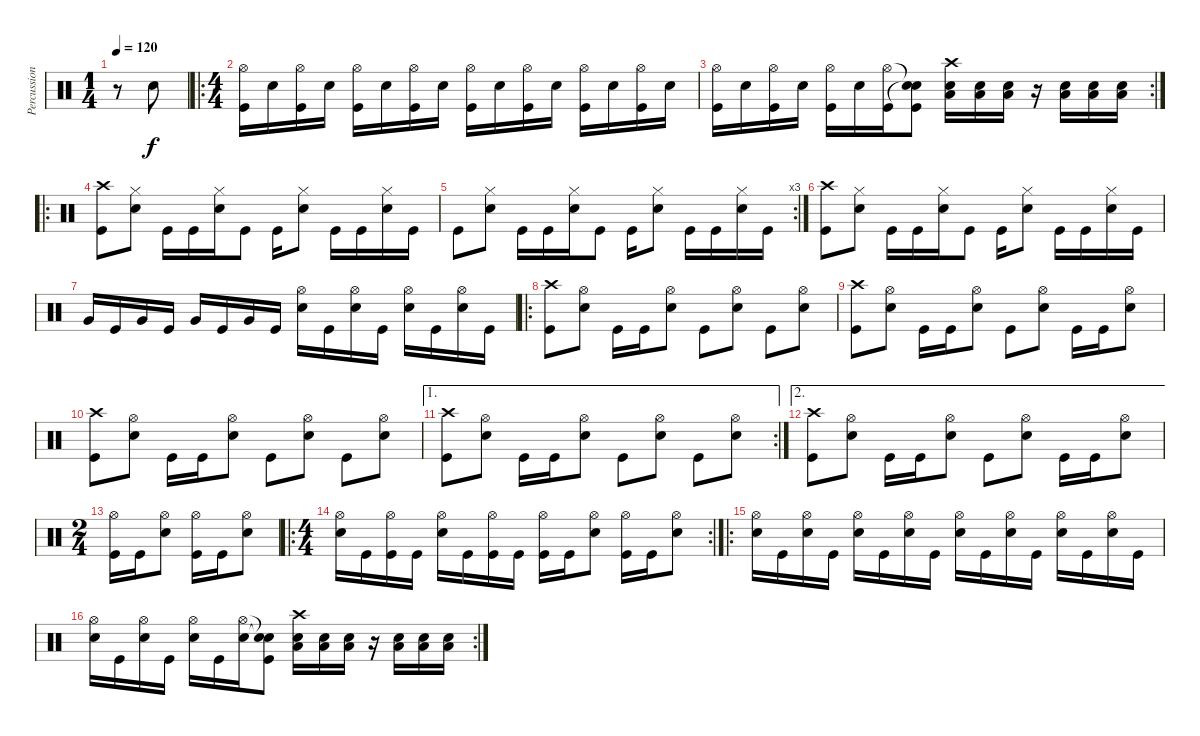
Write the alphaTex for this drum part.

\track ("Percussion" "Percussion") {instrument percussion}
\staff {score}
\articulation defaults
\ts (1 4)
\tempo 120
\clef neutral
\ks c
r.8{dy f} "Snare (hit) 2".8 |
\ro
\ts (4 4)
("Hi-Hat (open)" "Kick (hit)").16 "Snare (hit) 2".16 ("Hi-Hat (open)" "Kick (hit)").16 "Snare (hit) 2".16 ("Hi-Hat (open)" "Kick (hit)").16 "Snare (hit) 2".16 ("Hi-Hat (open)" "Kick (hit)").16 "Snare (hit) 2".16 ("Hi-Hat (open)" "Kick (hit)").16 "Snare (hit) 2".16 ("Hi-Hat (open)" "Kick (hit)").16 "Snare (hit) 2".16 ("Hi-Hat (open)" "Kick (hit)").16 "Snare (hit) 2".16 ("Hi-Hat (open)" "Kick (hit)").16 "Snare (hit) 2".16 |
\rc 2
("Hi-Hat (open)" "Kick (hit)").16 "Snare (hit) 2".16 ("Hi-Hat (open)" "Kick (hit)").16 "Snare (hit) 2".16 ("Hi-Hat (open)" "Kick (hit)").16 "Snare (hit) 2".16 ("Hi-Hat (open)" "Kick (hit)").16 ("Snare (hit)"{t} "Snare (hit)"{t} "Kick (hit)").8 ("Crash high (hit)" "Low Tom (hit)" "Snare (hit) 2").16 ("Low Tom (hit)" "Snare (hit) 2").16 ("Low Tom (hit)" "Snare (hit) 2").16 r.16 ("Low Tom (hit)" "Snare (hit) 2").16 ("Low Tom (hit)" "Snare (hit) 2").16 ("Low Tom (hit)" "Snare (hit) 2").16 |
\ro
("Crash high (hit)" "Kick (hit)").8 ("Hi-Hat (closed)" "Snare (hit) 2").8 "Kick (hit)".16 "Kick (hit)".16 ("Hi-Hat (closed)" "Snare (hit) 2").16 "Kick (hit)".8 "Kick (hit)".16 ("Hi-Hat (closed)" "Snare (hit) 2").8 "Kick (hit)".16 "Kick (hit)".16 ("Hi-Hat (closed)" "Snare (hit) 2").16 "Kick (hit)".16 |
\rc 3 "Kick (hit)".8
("Hi-Hat (closed)" "Snare (hit) 2").8 "Kick (hit)".16 "Kick (hit)".16 ("Hi-Hat (closed)" "Snare (hit) 2").16 "Kick (hit)".8 "Kick (hit)".16 ("Hi-Hat (closed)" "Snare (hit) 2").8 "Kick (hit)".16 "Kick (hit)".16 ("Hi-Hat (closed)" "Snare (hit) 2").16 "Kick (hit)".16 |
("Crash high (hit)" "Kick (hit)").8 ("Hi-Hat (closed)" "Snare (hit) 2").8 "Kick (hit)".16 "Kick (hit)".16 ("Hi-Hat (closed)" "Snare (hit) 2").16 "Kick (hit)".8 "Kick (hit)".16 ("Hi-Hat (closed)" "Snare (hit) 2").8 "Kick (hit)".16 "Kick (hit)".16 ("Hi-Hat (closed)" "Snare (hit) 2").16 "Kick (hit)".16 |
"Very Low Tom (hit)".16 "Kick (hit)".16 "Very Low Tom (hit)".16 "Kick (hit)".16 "Very Low Tom (hit)".16 "Kick (hit)".16 "Very Low Tom (hit)".16 "Kick (hit)".16 ("Hi-Hat (open)" "Snare (hit) 2").16 "Kick (hit)".16 ("Hi-Hat (open)" "Snare (hit) 2").16 "Kick (hit)".16 ("Hi-Hat (open)" "Snare (hit) 2").16 "Kick (hit)".16 ("Hi-Hat (open)" "Snare (hit) 2").16 "Kick (hit)".16 |
\ro
("Crash high (hit)" "Kick (hit)").8 ("Hi-Hat (open)" "Snare (hit) 2").8 "Kick (hit)".16 "Kick (hit)".16 ("Hi-Hat (open)" "Snare (hit) 2").8 "Kick (hit)".8 ("Hi-Hat (open)" "Snare (hit) 2").8 "Kick (hit)".8 ("Hi-Hat (open)" "Snare (hit) 2").8 |
("Crash high (hit)" "Kick (hit)").8 ("Hi-Hat (open)" "Snare (hit) 2").8 "Kick (hit)".16 "Kick (hit)".16 ("Hi-Hat (open)" "Snare (hit) 2").8 "Kick (hit)".8 ("Hi-Hat (open)" "Snare (hit) 2").8 "Kick (hit)".16 "Kick (hit)".16 ("Hi-Hat (open)" "Snare (hit) 2").8 |
("Crash high (hit)" "Kick (hit)").8 ("Hi-Hat (open)" "Snare (hit) 2").8 "Kick (hit)".16 "Kick (hit)".16 ("Hi-Hat (open)" "Snare (hit) 2").8 "Kick (hit)".8 ("Hi-Hat (open)" "Snare (hit) 2").8 "Kick (hit)".8 ("Hi-Hat (open)" "Snare (hit) 2").8 |
\ae 1
\rc 2
("Crash high (hit)" "Kick (hit)").8 ("Hi-Hat (open)" "Snare (hit) 2").8 "Kick (hit)".16 "Kick (hit)".16 ("Hi-Hat (open)" "Snare (hit) 2").8 "Kick (hit)".8 ("Hi-Hat (open)" "Snare (hit) 2").8 "Kick (hit)".8 ("Hi-Hat (open)" "Snare (hit) 2").8 |
\ae 2
("Crash high (hit)" "Kick (hit)").8 ("Hi-Hat (open)" "Snare (hit) 2").8 "Kick (hit)".16 "Kick (hit)".16 ("Hi-Hat (open)" "Snare (hit) 2").8 "Kick (hit)".8 ("Hi-Hat (open)" "Snare (hit) 2").8 "Kick (hit)".16 "Kick (hit)".16 ("Hi-Hat (open)" "Snare (hit) 2").8 |
\ts (2 4)
("Hi-Hat (open)" "Kick (hit)").16 "Kick (hit)".16 ("Hi-Hat (open)" "Snare (hit) 2").8 ("Hi-Hat (open)" "Kick (hit)").16 "Kick (hit)".16 ("Hi-Hat (open)" "Snare (hit) 2").8 |
\ro
\rc 2
\ts (4 4)
("Hi-Hat (open)" "Snare (hit) 2").16 "Kick (hit)".16 ("Hi-Hat (open)" "Kick (hit)").16 "Kick (hit)".16 ("Hi-Hat (open)" "Snare (hit) 2").16 "Kick (hit)".16 ("Hi-Hat (open)" "Kick (hit)").16 "Kick (hit)".16 ("Hi-Hat (open)" "Kick (hit)").16 "Kick (hit)".16 ("Hi-Hat (open)" "Snare (hit) 2").8 ("Hi-Hat (open)" "Kick (hit)").16 "Kick (hit)".16 ("Hi-Hat (open)" "Snare (hit) 2").8 |
\ro
("Hi-Hat (open)" "Snare (hit) 2").16 "Kick (hit)".16 ("Hi-Hat (open)" "Snare (hit) 2").16 "Kick (hit)".16 ("Hi-Hat (open)" "Snare (hit) 2").16 "Kick (hit)".16 ("Hi-Hat (open)" "Snare (hit) 2").16 "Kick (hit)".16 ("Hi-Hat (open)" "Snare (hit) 2").16 "Kick (hit)".16 ("Hi-Hat (open)" "Snare (hit) 2").16 "Kick (hit)".16 ("Hi-Hat (open)" "Snare (hit) 2").16 "Kick (hit)".16 ("Hi-Hat (open)" "Snare (hit) 2").16 "Kick (hit)".16 |
\rc 2
("Hi-Hat (open)" "Snare (hit) 2").16 "Kick (hit)".16 ("Hi-Hat (open)" "Snare (hit) 2").16 "Kick (hit)".16 ("Hi-Hat (open)" "Snare (hit) 2").16 "Kick (hit)".16 ("Hi-Hat (open)" "Snare (hit) 2").16 ("Snare (hit)"{t} "Snare (hit)"{t} "Kick (hit)").8 ("Crash high (hit)" "Low Tom (hit)" "Snare (hit) 2").16 ("Low Tom (hit)" "Snare (hit) 2").16 ("Low Tom (hit)" "Snare (hit) 2").16 r.16 ("Low Tom (hit)" "Snare (hit) 2").16 ("Low Tom (hit)" "Snare (hit) 2").16 ("Low Tom (hit)" "Snare (hit) 2").16
